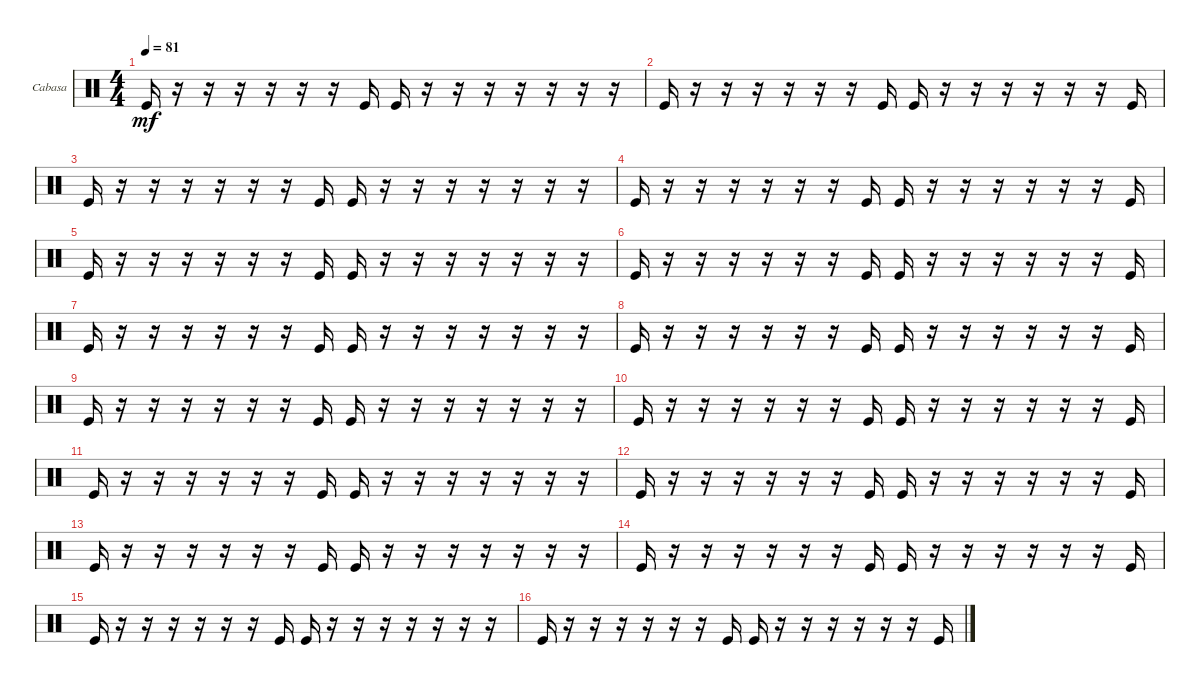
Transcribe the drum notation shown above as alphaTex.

\bracketExtendMode groupsimilarinstruments
\firstSystemTrackNameOrientation horizontal
\otherSystemsTrackNameOrientation horizontal
\track ("Cabasa" "Cabasa") {instrument percussion}
\staff {score}
\articulation defaults
\ts (4 4)
\tempo 81
\clef neutral
\ks c "Kick (hit)".16{dy mf}
r.16 r.16 r.16 r.16 r.16 r.16 "Kick (hit)".16 "Kick (hit)".16 r.16 r.16 r.16 r.16 r.16 r.16 r.16 |
"Kick (hit)".16 r.16 r.16 r.16 r.16 r.16 r.16 "Kick (hit)".16 "Kick (hit)".16 r.16 r.16 r.16 r.16 r.16 r.16 "Kick (hit)".16 |
"Kick (hit)".16 r.16 r.16 r.16 r.16 r.16 r.16 "Kick (hit)".16 "Kick (hit)".16 r.16 r.16 r.16 r.16 r.16 r.16 r.16 |
"Kick (hit)".16 r.16 r.16 r.16 r.16 r.16 r.16 "Kick (hit)".16 "Kick (hit)".16 r.16 r.16 r.16 r.16 r.16 r.16 "Kick (hit)".16 |
"Kick (hit)".16 r.16 r.16 r.16 r.16 r.16 r.16 "Kick (hit)".16 "Kick (hit)".16 r.16 r.16 r.16 r.16 r.16 r.16 r.16 |
"Kick (hit)".16 r.16 r.16 r.16 r.16 r.16 r.16 "Kick (hit)".16 "Kick (hit)".16 r.16 r.16 r.16 r.16 r.16 r.16 "Kick (hit)".16 |
"Kick (hit)".16 r.16 r.16 r.16 r.16 r.16 r.16 "Kick (hit)".16 "Kick (hit)".16 r.16 r.16 r.16 r.16 r.16 r.16 r.16 |
"Kick (hit)".16 r.16 r.16 r.16 r.16 r.16 r.16 "Kick (hit)".16 "Kick (hit)".16 r.16 r.16 r.16 r.16 r.16 r.16 "Kick (hit)".16 |
"Kick (hit)".16 r.16 r.16 r.16 r.16 r.16 r.16 "Kick (hit)".16 "Kick (hit)".16 r.16 r.16 r.16 r.16 r.16 r.16 r.16 |
"Kick (hit)".16 r.16 r.16 r.16 r.16 r.16 r.16 "Kick (hit)".16 "Kick (hit)".16 r.16 r.16 r.16 r.16 r.16 r.16 "Kick (hit)".16 |
"Kick (hit)".16 r.16 r.16 r.16 r.16 r.16 r.16 "Kick (hit)".16 "Kick (hit)".16 r.16 r.16 r.16 r.16 r.16 r.16 r.16 |
"Kick (hit)".16 r.16 r.16 r.16 r.16 r.16 r.16 "Kick (hit)".16 "Kick (hit)".16 r.16 r.16 r.16 r.16 r.16 r.16 "Kick (hit)".16 |
"Kick (hit)".16 r.16 r.16 r.16 r.16 r.16 r.16 "Kick (hit)".16 "Kick (hit)".16 r.16 r.16 r.16 r.16 r.16 r.16 r.16 |
"Kick (hit)".16 r.16 r.16 r.16 r.16 r.16 r.16 "Kick (hit)".16 "Kick (hit)".16 r.16 r.16 r.16 r.16 r.16 r.16 "Kick (hit)".16 |
"Kick (hit)".16 r.16 r.16 r.16 r.16 r.16 r.16 "Kick (hit)".16 "Kick (hit)".16 r.16 r.16 r.16 r.16 r.16 r.16 r.16 |
"Kick (hit)".16 r.16 r.16 r.16 r.16 r.16 r.16 "Kick (hit)".16 "Kick (hit)".16 r.16 r.16 r.16 r.16 r.16 r.16 "Kick (hit)".16
